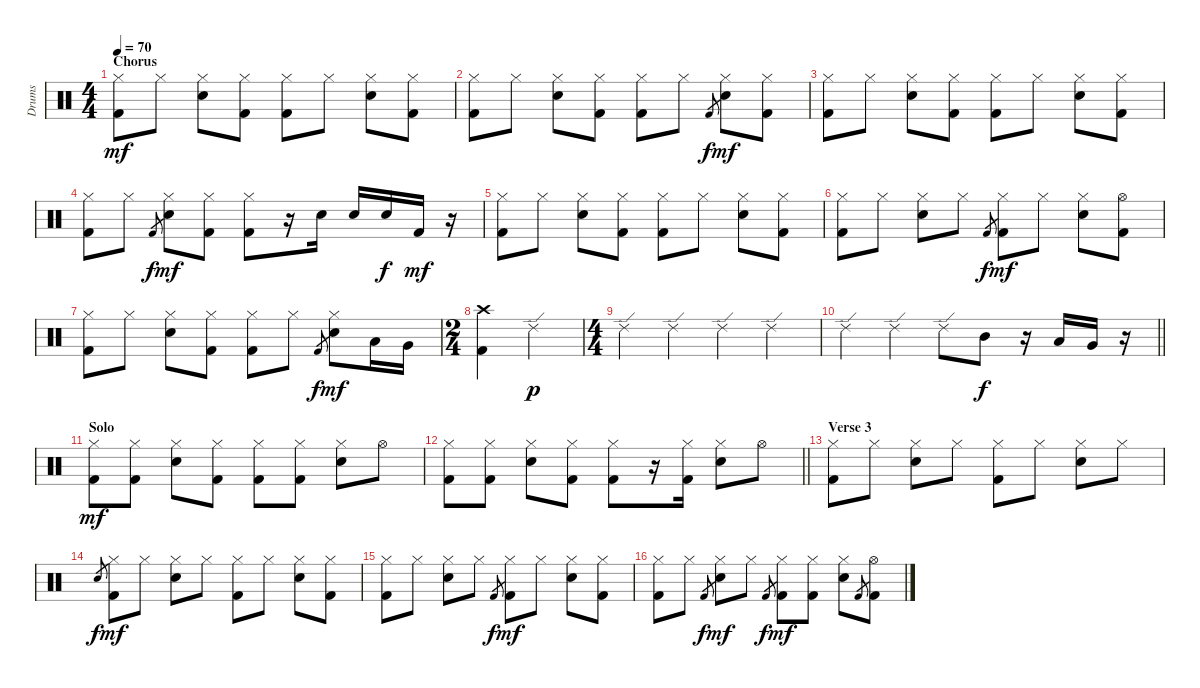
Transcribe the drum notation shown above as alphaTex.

\track ("Drums" "Drums") {instrument percussion}
\staff {score}
\articulation defaults
\ts (4 4)
\section ("" "Chorus")
\tempo 70
\clef neutral
\ks c
("Hi-Hat (closed)" "Kick (hit) 2").8{dy mf} "Hi-Hat (closed)".8 ("Hi-Hat (closed)" "Snare (hit) 2").8 ("Hi-Hat (closed)" "Kick (hit) 2").8 ("Hi-Hat (closed)" "Kick (hit) 2").8 "Hi-Hat (closed)".8 ("Hi-Hat (closed)" "Snare (hit) 2").8 ("Hi-Hat (closed)" "Kick (hit) 2").8 |
("Hi-Hat (closed)" "Kick (hit) 2").8 "Hi-Hat (closed)".8 ("Hi-Hat (closed)" "Snare (hit) 2").8 ("Hi-Hat (closed)" "Kick (hit) 2").8 ("Hi-Hat (closed)" "Kick (hit) 2").8 "Hi-Hat (closed)".8 "Kick (hit) 2".8{gr dy f} ("Hi-Hat (closed)" "Snare (hit) 2").8{dy mf} ("Hi-Hat (closed)" "Kick (hit) 2").8 |
("Hi-Hat (closed)" "Kick (hit) 2").8 "Hi-Hat (closed)".8 ("Hi-Hat (closed)" "Snare (hit) 2").8 ("Hi-Hat (closed)" "Kick (hit) 2").8 ("Hi-Hat (closed)" "Kick (hit) 2").8 "Hi-Hat (closed)".8 ("Hi-Hat (closed)" "Snare (hit) 2").8 ("Hi-Hat (closed)" "Kick (hit) 2").8 |
("Hi-Hat (closed)" "Kick (hit) 2").8 "Hi-Hat (closed)".8 "Kick (hit) 2".8{gr dy f} ("Hi-Hat (closed)" "Snare (hit) 2").8{dy mf} ("Hi-Hat (closed)" "Kick (hit) 2").8 ("Hi-Hat (closed)" "Kick (hit) 2").8 r.16 "Snare (hit) 2".16 "Snare (hit) 2".16 "Snare (hit) 2".16{dy f} "Kick (hit) 2".16{dy mf} r.16 |
("Hi-Hat (closed)" "Kick (hit) 2").8 "Hi-Hat (closed)".8 ("Hi-Hat (closed)" "Snare (hit) 2").8 ("Hi-Hat (closed)" "Kick (hit) 2").8 ("Hi-Hat (closed)" "Kick (hit) 2").8 "Hi-Hat (closed)".8 ("Hi-Hat (closed)" "Snare (hit) 2").8 ("Hi-Hat (closed)" "Kick (hit) 2").8 |
("Hi-Hat (closed)" "Kick (hit) 2").8 "Hi-Hat (closed)".8 ("Hi-Hat (closed)" "Snare (hit) 2").8 "Hi-Hat (closed)".8 "Kick (hit) 2".8{gr dy f} ("Hi-Hat (closed)" "Kick (hit) 2").8{dy mf} "Hi-Hat (closed)".8 ("Hi-Hat (closed)" "Snare (hit) 2").8 ("Hi-Hat (open)" "Kick (hit) 2").8 |
("Hi-Hat (closed)" "Kick (hit) 2").8 "Hi-Hat (closed)".8 ("Hi-Hat (closed)" "Snare (hit) 2").8 ("Hi-Hat (closed)" "Kick (hit) 2").8 ("Hi-Hat (closed)" "Kick (hit) 2").8 "Hi-Hat (closed)".8 "Kick (hit) 2".8{gr dy f} ("Hi-Hat (closed)" "Snare (hit) 2").8{dy mf} "Low Tom (hit)".16 "Very Low Tom (hit)".16 |
\ts (2 4)
("Crash high (hit)" "Kick (hit) 2").4 "Ride (edge) 2".4{dy p} |
\ts (4 4)
"Ride (edge) 2".4 "Ride (edge) 2".4 "Ride (edge) 2".4 "Ride (edge) 2".4 |
\barLineRight lightlight "Ride (edge) 2".4 "Ride (edge) 2".4 "Ride (edge) 2".8 "Mid Tom (hit)".8{dy f}
r.16 "Low Tom (hit)".16 "Very Low Tom (hit)".16 r.16 |
\section ("" "Solo")
("Hi-Hat (closed)" "Kick (hit) 2").8{dy mf} ("Hi-Hat (closed)" "Kick (hit) 2").8 ("Hi-Hat (closed)" "Snare (hit) 2").8 ("Hi-Hat (closed)" "Kick (hit) 2").8 ("Hi-Hat (closed)" "Kick (hit) 2").8 ("Hi-Hat (closed)" "Kick (hit) 2").8 ("Hi-Hat (closed)" "Snare (hit) 2").8 "Hi-Hat (open)".8 |
\barLineRight lightlight
("Hi-Hat (closed)" "Kick (hit) 2").8 ("Hi-Hat (closed)" "Kick (hit) 2").8 ("Hi-Hat (closed)" "Snare (hit) 2").8 ("Hi-Hat (closed)" "Kick (hit) 2").8 ("Hi-Hat (closed)" "Kick (hit) 2").8 r.16 ("Hi-Hat (closed)" "Kick (hit) 2").16 ("Hi-Hat (closed)" "Snare (hit) 2").8 "Hi-Hat (open)".8 |
\section ("" "Verse 3")
("Hi-Hat (closed)" "Kick (hit) 2").8 "Hi-Hat (closed)".8 ("Hi-Hat (closed)" "Snare (hit) 2").8 "Hi-Hat (closed)".8 ("Hi-Hat (closed)" "Kick (hit) 2").8 "Hi-Hat (closed)".8 ("Hi-Hat (closed)" "Snare (hit) 2").8 "Hi-Hat (closed)".8 |
"Snare (hit) 2".8{gr dy f} ("Hi-Hat (closed)" "Kick (hit) 2").8{dy mf} "Hi-Hat (closed)".8 ("Hi-Hat (closed)" "Snare (hit) 2").8 "Hi-Hat (closed)".8 ("Hi-Hat (closed)" "Kick (hit) 2").8 "Hi-Hat (closed)".8 ("Hi-Hat (closed)" "Snare (hit) 2").8 ("Hi-Hat (closed)" "Kick (hit) 2").8 |
("Hi-Hat (closed)" "Kick (hit) 2").8 "Hi-Hat (closed)".8 ("Hi-Hat (closed)" "Snare (hit) 2").8 "Hi-Hat (closed)".8 "Kick (hit) 2".8{gr dy f} ("Hi-Hat (closed)" "Kick (hit) 2").8{dy mf} "Hi-Hat (closed)".8 ("Hi-Hat (closed)" "Snare (hit) 2").8 ("Hi-Hat (closed)" "Kick (hit) 2").8 |
("Hi-Hat (closed)" "Kick (hit) 2").8 "Hi-Hat (closed)".8 "Kick (hit) 2".8{gr dy f} ("Hi-Hat (closed)" "Snare (hit) 2").8{dy mf} "Hi-Hat (closed)".8 "Kick (hit) 2".8{gr dy f} ("Hi-Hat (closed)" "Kick (hit) 2").8{dy mf} ("Hi-Hat (closed)" "Kick (hit) 2").8 ("Hi-Hat (closed)" "Snare (hit) 2").8 "Kick (hit) 2".8{gr} ("Hi-Hat (open)" "Kick (hit) 2").8
